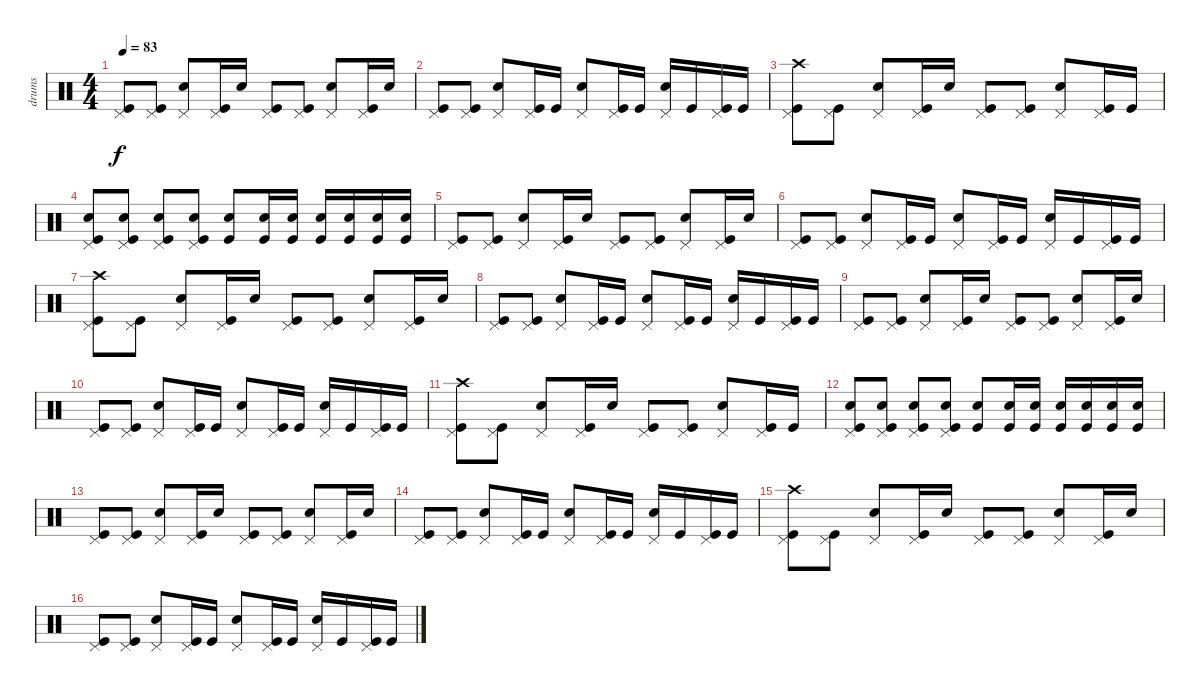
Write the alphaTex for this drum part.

\track ("drums" "drums") {instrument percussion}
\staff {score}
\articulation defaults
\ts (4 4)
\tempo 83
\clef neutral
\ks c
("Pedal Hi-Hat (hit)" "Kick (hit)").8{dy f} ("Pedal Hi-Hat (hit)" "Kick (hit)").8 ("Pedal Hi-Hat (hit)" "Snare (hit) 2").8 ("Pedal Hi-Hat (hit)" "Kick (hit)").16 "Snare (hit) 2".16 ("Pedal Hi-Hat (hit)" "Kick (hit)").8 ("Pedal Hi-Hat (hit)" "Kick (hit)").8 ("Pedal Hi-Hat (hit)" "Snare (hit) 2").8 ("Pedal Hi-Hat (hit)" "Kick (hit)").16 "Snare (hit) 2".16 |
("Pedal Hi-Hat (hit)" "Kick (hit)").8 ("Pedal Hi-Hat (hit)" "Kick (hit)").8 ("Pedal Hi-Hat (hit)" "Snare (hit) 2").8 ("Pedal Hi-Hat (hit)" "Kick (hit)").16 "Kick (hit)".16 ("Pedal Hi-Hat (hit)" "Snare (hit) 2").8 ("Pedal Hi-Hat (hit)" "Kick (hit)").16 "Kick (hit)".16 ("Pedal Hi-Hat (hit)" "Snare (hit) 2").16 "Kick (hit)".16 ("Pedal Hi-Hat (hit)" "Kick (hit)").16 "Kick (hit)".16 |
("Crash high (hit)" "Pedal Hi-Hat (hit)" "Kick (hit)").8 ("Pedal Hi-Hat (hit)" "Kick (hit)").8 ("Pedal Hi-Hat (hit)" "Snare (hit) 2").8 ("Pedal Hi-Hat (hit)" "Kick (hit)").16 "Snare (hit) 2".16 ("Pedal Hi-Hat (hit)" "Kick (hit)").8 ("Pedal Hi-Hat (hit)" "Kick (hit)").8 ("Pedal Hi-Hat (hit)" "Snare (hit) 2").8 ("Pedal Hi-Hat (hit)" "Kick (hit)").16 "Kick (hit)".16 |
("Kick (hit)" "Snare (hit) 2" "Pedal Hi-Hat (hit)").8 ("Kick (hit)" "Snare (hit) 2" "Pedal Hi-Hat (hit)").8 ("Kick (hit)" "Pedal Hi-Hat (hit)" "Snare (hit) 2").8 ("Kick (hit)" "Snare (hit) 2" "Pedal Hi-Hat (hit)").8 ("Kick (hit)" "Snare (hit) 2").8 ("Kick (hit)" "Snare (hit) 2").16 ("Kick (hit)" "Snare (hit) 2").16 ("Kick (hit)" "Snare (hit) 2").16 ("Kick (hit)" "Snare (hit) 2").16 ("Kick (hit)" "Snare (hit) 2").16 ("Kick (hit)" "Snare (hit) 2").16 |
("Pedal Hi-Hat (hit)" "Kick (hit)").8 ("Pedal Hi-Hat (hit)" "Kick (hit)").8 ("Pedal Hi-Hat (hit)" "Snare (hit) 2").8 ("Pedal Hi-Hat (hit)" "Kick (hit)").16 "Snare (hit) 2".16 ("Pedal Hi-Hat (hit)" "Kick (hit)").8 ("Pedal Hi-Hat (hit)" "Kick (hit)").8 ("Pedal Hi-Hat (hit)" "Snare (hit) 2").8 ("Pedal Hi-Hat (hit)" "Kick (hit)").16 "Snare (hit) 2".16 |
("Pedal Hi-Hat (hit)" "Kick (hit)").8 ("Pedal Hi-Hat (hit)" "Kick (hit)").8 ("Pedal Hi-Hat (hit)" "Snare (hit) 2").8 ("Pedal Hi-Hat (hit)" "Kick (hit)").16 "Kick (hit)".16 ("Pedal Hi-Hat (hit)" "Snare (hit) 2").8 ("Pedal Hi-Hat (hit)" "Kick (hit)").16 "Kick (hit)".16 ("Pedal Hi-Hat (hit)" "Snare (hit) 2").16 "Kick (hit)".16 ("Pedal Hi-Hat (hit)" "Kick (hit)").16 "Kick (hit)".16 |
("Crash high (hit)" "Pedal Hi-Hat (hit)" "Kick (hit)").8 ("Pedal Hi-Hat (hit)" "Kick (hit)").8 ("Pedal Hi-Hat (hit)" "Snare (hit) 2").8 ("Pedal Hi-Hat (hit)" "Kick (hit)").16 "Snare (hit) 2".16 ("Pedal Hi-Hat (hit)" "Kick (hit)").8 ("Pedal Hi-Hat (hit)" "Kick (hit)").8 ("Pedal Hi-Hat (hit)" "Snare (hit) 2").8 ("Pedal Hi-Hat (hit)" "Kick (hit)").16 "Snare (hit) 2".16 |
("Pedal Hi-Hat (hit)" "Kick (hit)").8 ("Pedal Hi-Hat (hit)" "Kick (hit)").8 ("Pedal Hi-Hat (hit)" "Snare (hit) 2").8 ("Pedal Hi-Hat (hit)" "Kick (hit)").16 "Kick (hit)".16 ("Pedal Hi-Hat (hit)" "Snare (hit) 2").8 ("Pedal Hi-Hat (hit)" "Kick (hit)").16 "Kick (hit)".16 ("Pedal Hi-Hat (hit)" "Snare (hit) 2").16 "Kick (hit)".16 ("Pedal Hi-Hat (hit)" "Kick (hit)").16 "Kick (hit)".16 |
("Pedal Hi-Hat (hit)" "Kick (hit)").8 ("Pedal Hi-Hat (hit)" "Kick (hit)").8 ("Pedal Hi-Hat (hit)" "Snare (hit) 2").8 ("Pedal Hi-Hat (hit)" "Kick (hit)").16 "Snare (hit) 2".16 ("Pedal Hi-Hat (hit)" "Kick (hit)").8 ("Pedal Hi-Hat (hit)" "Kick (hit)").8 ("Pedal Hi-Hat (hit)" "Snare (hit) 2").8 ("Pedal Hi-Hat (hit)" "Kick (hit)").16 "Snare (hit) 2".16 |
("Pedal Hi-Hat (hit)" "Kick (hit)").8 ("Pedal Hi-Hat (hit)" "Kick (hit)").8 ("Pedal Hi-Hat (hit)" "Snare (hit) 2").8 ("Pedal Hi-Hat (hit)" "Kick (hit)").16 "Kick (hit)".16 ("Pedal Hi-Hat (hit)" "Snare (hit) 2").8 ("Pedal Hi-Hat (hit)" "Kick (hit)").16 "Kick (hit)".16 ("Pedal Hi-Hat (hit)" "Snare (hit) 2").16 "Kick (hit)".16 ("Pedal Hi-Hat (hit)" "Kick (hit)").16 "Kick (hit)".16 |
("Crash high (hit)" "Pedal Hi-Hat (hit)" "Kick (hit)").8 ("Pedal Hi-Hat (hit)" "Kick (hit)").8 ("Pedal Hi-Hat (hit)" "Snare (hit) 2").8 ("Pedal Hi-Hat (hit)" "Kick (hit)").16 "Snare (hit) 2".16 ("Pedal Hi-Hat (hit)" "Kick (hit)").8 ("Pedal Hi-Hat (hit)" "Kick (hit)").8 ("Pedal Hi-Hat (hit)" "Snare (hit) 2").8 ("Pedal Hi-Hat (hit)" "Kick (hit)").16 "Kick (hit)".16 |
("Kick (hit)" "Snare (hit) 2" "Pedal Hi-Hat (hit)").8 ("Kick (hit)" "Snare (hit) 2" "Pedal Hi-Hat (hit)").8 ("Kick (hit)" "Pedal Hi-Hat (hit)" "Snare (hit) 2").8 ("Kick (hit)" "Snare (hit) 2" "Pedal Hi-Hat (hit)").8 ("Kick (hit)" "Snare (hit) 2").8 ("Kick (hit)" "Snare (hit) 2").16 ("Kick (hit)" "Snare (hit) 2").16 ("Kick (hit)" "Snare (hit) 2").16 ("Kick (hit)" "Snare (hit) 2").16 ("Kick (hit)" "Snare (hit) 2").16 ("Kick (hit)" "Snare (hit) 2").16 |
("Pedal Hi-Hat (hit)" "Kick (hit)").8 ("Pedal Hi-Hat (hit)" "Kick (hit)").8 ("Pedal Hi-Hat (hit)" "Snare (hit) 2").8 ("Pedal Hi-Hat (hit)" "Kick (hit)").16 "Snare (hit) 2".16 ("Pedal Hi-Hat (hit)" "Kick (hit)").8 ("Pedal Hi-Hat (hit)" "Kick (hit)").8 ("Pedal Hi-Hat (hit)" "Snare (hit) 2").8 ("Pedal Hi-Hat (hit)" "Kick (hit)").16 "Snare (hit) 2".16 |
("Pedal Hi-Hat (hit)" "Kick (hit)").8 ("Pedal Hi-Hat (hit)" "Kick (hit)").8 ("Pedal Hi-Hat (hit)" "Snare (hit) 2").8 ("Pedal Hi-Hat (hit)" "Kick (hit)").16 "Kick (hit)".16 ("Pedal Hi-Hat (hit)" "Snare (hit) 2").8 ("Pedal Hi-Hat (hit)" "Kick (hit)").16 "Kick (hit)".16 ("Pedal Hi-Hat (hit)" "Snare (hit) 2").16 "Kick (hit)".16 ("Pedal Hi-Hat (hit)" "Kick (hit)").16 "Kick (hit)".16 |
("Crash high (hit)" "Pedal Hi-Hat (hit)" "Kick (hit)").8 ("Pedal Hi-Hat (hit)" "Kick (hit)").8 ("Pedal Hi-Hat (hit)" "Snare (hit) 2").8 ("Pedal Hi-Hat (hit)" "Kick (hit)").16 "Snare (hit) 2".16 ("Pedal Hi-Hat (hit)" "Kick (hit)").8 ("Pedal Hi-Hat (hit)" "Kick (hit)").8 ("Pedal Hi-Hat (hit)" "Snare (hit) 2").8 ("Pedal Hi-Hat (hit)" "Kick (hit)").16 "Snare (hit) 2".16 |
("Pedal Hi-Hat (hit)" "Kick (hit)").8 ("Pedal Hi-Hat (hit)" "Kick (hit)").8 ("Pedal Hi-Hat (hit)" "Snare (hit) 2").8 ("Pedal Hi-Hat (hit)" "Kick (hit)").16 "Kick (hit)".16 ("Pedal Hi-Hat (hit)" "Snare (hit) 2").8 ("Pedal Hi-Hat (hit)" "Kick (hit)").16 "Kick (hit)".16 ("Pedal Hi-Hat (hit)" "Snare (hit) 2").16 "Kick (hit)".16 ("Pedal Hi-Hat (hit)" "Kick (hit)").16 "Kick (hit)".16
